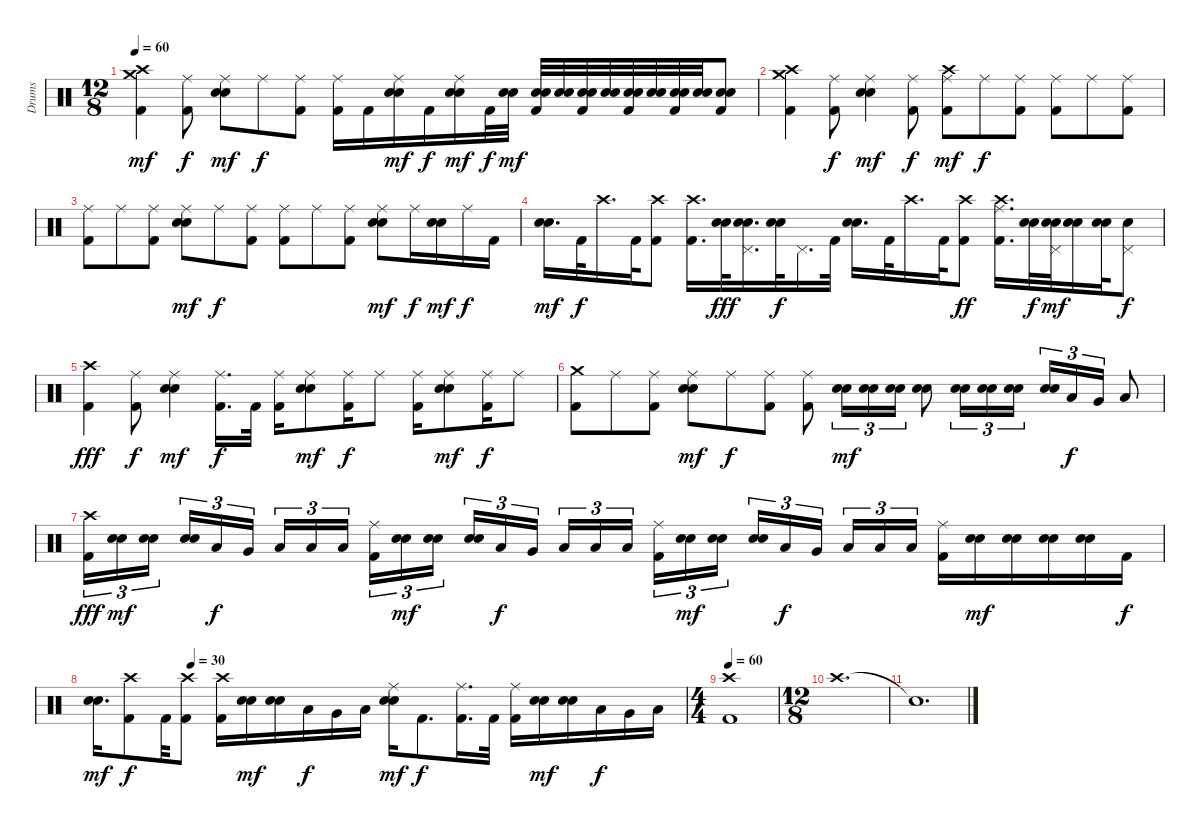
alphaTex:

\track ("Drums" "Drums") {instrument percussion}
\staff {score}
\articulation defaults
\ts (12 8)
\tempo 60
\clef neutral
\ks c
("Crash high (hit)" "Crash medium (hit)" "Kick (hit) 2").4{dy mf} ("Ride (middle)" "Kick (hit) 2").8{dy f} ("Ride (middle)" "Electric Snare (hit)" "Snare (hit) 2").8{dy mf} "Ride (middle)".8{dy f} ("Ride (middle)" "Kick (hit) 2").8 ("Ride (middle)" "Kick (hit) 2").16 "Kick (hit) 2".16 ("Ride (middle)" "Electric Snare (hit)" "Snare (hit) 2").16{dy mf} "Kick (hit) 2".16{dy f} ("Ride (middle)" "Electric Snare (hit)" "Snare (hit) 2").16{dy mf} "Kick (hit) 2".32{dy f} ("Electric Snare (hit)" "Snare (hit) 2").32{dy mf} ("Electric Snare (hit)" "Snare (hit) 2" "Kick (hit) 2").32 ("Electric Snare (hit)" "Snare (hit) 2").32 ("Electric Snare (hit)" "Snare (hit) 2" "Kick (hit) 2").32 ("Electric Snare (hit)" "Snare (hit) 2").32 ("Electric Snare (hit)" "Snare (hit) 2" "Kick (hit) 2").32 ("Electric Snare (hit)" "Snare (hit) 2").32 ("Electric Snare (hit)" "Snare (hit) 2" "Kick (hit) 2").32 ("Electric Snare (hit)" "Snare (hit) 2").32 ("Electric Snare (hit)" "Snare (hit) 2" "Kick (hit) 2").8 |
("Crash high (hit)" "Crash medium (hit)" "Kick (hit) 2").4 ("Ride (middle)" "Kick (hit) 2").8{dy f} ("Ride (middle)" "Electric Snare (hit)" "Snare (hit) 2").4{dy mf} ("Ride (middle)" "Kick (hit) 2").8{dy f} ("Ride (middle)" "Crash high (hit)" "Kick (hit) 2").8{dy mf} "Ride (middle)".8{dy f} ("Ride (middle)" "Kick (hit) 2").8 ("Ride (middle)" "Kick (hit) 2").8 "Ride (middle)".8 ("Ride (middle)" "Kick (hit) 2").8 |
("Ride (middle)" "Kick (hit) 2").8 "Ride (middle)".8 ("Ride (middle)" "Kick (hit) 2").8 ("Ride (middle)" "Electric Snare (hit)" "Snare (hit) 2").8{dy mf} "Ride (middle)".8{dy f} ("Ride (middle)" "Kick (hit) 2").8 ("Ride (middle)" "Kick (hit) 2").8 "Ride (middle)".8 ("Ride (middle)" "Kick (hit) 2").8 ("Ride (middle)" "Electric Snare (hit)" "Snare (hit) 2").8{dy mf} "Ride (middle)".16{dy f} ("Electric Snare (hit)" "Snare (hit) 2").16{dy mf} "Ride (middle)".16{dy f} "Kick (hit) 2".16 |
("Electric Snare (hit)" "Snare (hit) 2").16{d dy mf} "Kick (hit) 2".32{dy f} "Crash high (hit)".16{d} "Kick (hit) 2".32 ("Crash high (hit)" "Kick (hit) 2").8 ("Crash high (hit)" "Kick (hit) 2").16{d} ("Electric Snare (hit)" "Snare (hit) 2").32{dy fff} ("Pedal Hi-Hat (hit)" "Electric Snare (hit)" "Snare (hit) 2").16{d} ("Electric Snare (hit)" "Snare (hit) 2").32{dy f} "Pedal Hi-Hat (hit)".16{d} "Kick (hit) 2".32 ("Electric Snare (hit)" "Snare (hit) 2").16{d} "Kick (hit) 2".32 "Crash high (hit)".16{d} "Kick (hit) 2".32 ("Kick (hit) 2" "Crash high (hit)").8{dy ff} ("Ride (middle)" "Kick (hit) 2" "Crash high (hit)").16{d} ("Electric Snare (hit)" "Snare (hit) 2").32{dy f} ("Pedal Hi-Hat (hit)" "Electric Snare (hit)" "Snare (hit) 2").32{dy mf} ("Electric Snare (hit)" "Snare (hit) 2").16 ("Electric Snare (hit)" "Snare (hit) 2").32 ("Pedal Hi-Hat (hit)" "Electric Snare (hit)").8{dy f} |
("Crash high (hit)" "Kick (hit) 2").4{dy fff} ("Ride (middle)" "Kick (hit) 2").8{dy f} ("Ride (middle)" "Electric Snare (hit)" "Snare (hit) 2").4{dy mf} ("Ride (middle)" "Kick (hit) 2").16{d dy f} "Kick (hit) 2".32 ("Ride (middle)" "Kick (hit) 2").16 ("Ride (middle)" "Electric Snare (hit)" "Snare (hit) 2").8{dy mf} ("Ride (middle)" "Kick (hit) 2").16{dy f} "Ride (middle)".8 ("Ride (middle)" "Kick (hit) 2").16 ("Ride (middle)" "Electric Snare (hit)" "Snare (hit) 2").8{dy mf} ("Ride (middle)" "Kick (hit) 2").16{dy f} "Ride (middle)".8 |
("Crash medium (hit)" "Kick (hit) 2").8 "Ride (middle)".8 ("Ride (middle)" "Kick (hit) 2").8 ("Ride (middle)" "Electric Snare (hit)" "Snare (hit) 2").8{dy mf} "Ride (middle)".8{dy f} ("Ride (middle)" "Kick (hit) 2").8 ("Ride (middle)" "Kick (hit) 2").8 ("Electric Snare (hit)" "Snare (hit) 2").16{tu (3 2) dy mf} ("Electric Snare (hit)" "Snare (hit) 2").16{tu (3 2)} ("Electric Snare (hit)" "Snare (hit) 2").16{tu (3 2)} ("Electric Snare (hit)" "Snare (hit) 2").8 ("Electric Snare (hit)" "Snare (hit) 2").16{tu (3 2)} ("Electric Snare (hit)" "Snare (hit) 2").16{tu (3 2)} ("Electric Snare (hit)" "Snare (hit) 2").16{tu (3 2)} ("Electric Snare (hit)" "Snare (hit) 2").16{tu (3 2)} "Low Tom (hit)".16{tu (3 2) dy f} "Very Low Tom (hit)".16{tu (3 2)} "Low Floor Tom (hit)".8 |
("Crash high (hit)" "Kick (hit) 2").16{tu (3 2) dy fff} ("Electric Snare (hit)" "Snare (hit) 2").16{tu (3 2) dy mf} ("Electric Snare (hit)" "Snare (hit) 2").16{tu (3 2)} ("Electric Snare (hit)" "Snare (hit) 2").16{tu (3 2)} "Low Tom (hit)".16{tu (3 2) dy f} "Very Low Tom (hit)".16{tu (3 2)} "Low Floor Tom (hit)".16{tu (3 2)} "Low Floor Tom (hit)".16{tu (3 2)} "Low Floor Tom (hit)".16{tu (3 2)} ("Ride (middle)" "Kick (hit) 2").16{tu (3 2)} ("Electric Snare (hit)" "Snare (hit) 2").16{tu (3 2) dy mf} ("Electric Snare (hit)" "Snare (hit) 2").16{tu (3 2)} ("Electric Snare (hit)" "Snare (hit) 2").16{tu (3 2)} "Low Tom (hit)".16{tu (3 2) dy f} "Very Low Tom (hit)".16{tu (3 2)} "Low Floor Tom (hit)".16{tu (3 2)} "Low Floor Tom (hit)".16{tu (3 2)} "Low Floor Tom (hit)".16{tu (3 2)} ("Ride (middle)" "Kick (hit) 2").16{tu (3 2)} ("Electric Snare (hit)" "Snare (hit) 2").16{tu (3 2) dy mf} ("Electric Snare (hit)" "Snare (hit) 2").16{tu (3 2)} ("Electric Snare (hit)" "Snare (hit) 2").16{tu (3 2)} "Low Tom (hit)".16{tu (3 2) dy f} "Very Low Tom (hit)".16{tu (3 2)} "Low Floor Tom (hit)".16{tu (3 2)} "Low Floor Tom (hit)".16{tu (3 2)} "Low Floor Tom (hit)".16{tu (3 2)} ("Ride (middle)" "Kick (hit) 2").16 ("Electric Snare (hit)" "Snare (hit) 2").16{dy mf} ("Electric Snare (hit)" "Snare (hit) 2").16 ("Electric Snare (hit)" "Snare (hit) 2").16 ("Electric Snare (hit)" "Snare (hit) 2").16 "Kick (hit) 2".16{dy f} |
\tempo (30 0.16666666666666666)
("Electric Snare (hit)" "Snare (hit) 2").16{d dy mf} ("Crash high (hit)" "Kick (hit) 2").8{dy f} "Kick (hit) 2".32 ("Crash high (hit)" "Kick (hit) 2").8 ("Crash high (hit)" "Kick (hit) 2").16 ("Electric Snare (hit)" "Snare (hit) 2").16{dy mf} ("Electric Snare (hit)" "Snare (hit) 2").16 "Low Tom (hit)".16{dy f} "Very Low Tom (hit)".16 "Low Floor Tom (hit)".16 ("Electric Snare (hit)" "Snare (hit) 2" "Ride (middle)").16{dy mf} "Kick (hit) 2".8{d dy f} ("Ride (middle)" "Kick (hit) 2").16{d} "Kick (hit) 2".32 ("Ride (middle)" "Kick (hit) 2").16 ("Electric Snare (hit)" "Snare (hit) 2").16{dy mf} ("Electric Snare (hit)" "Snare (hit) 2").16 "Low Tom (hit)".16{dy f} "Very Low Tom (hit)".16 "Low Floor Tom (hit)".16 |
\ts (4 4)
\tempo 60
("Crash high (hit)" "Kick (hit) 2").1 |
\ts (12 8)
"Crash high (hit)".1{d} |
"Snare (hit)"{t}.1{d}
